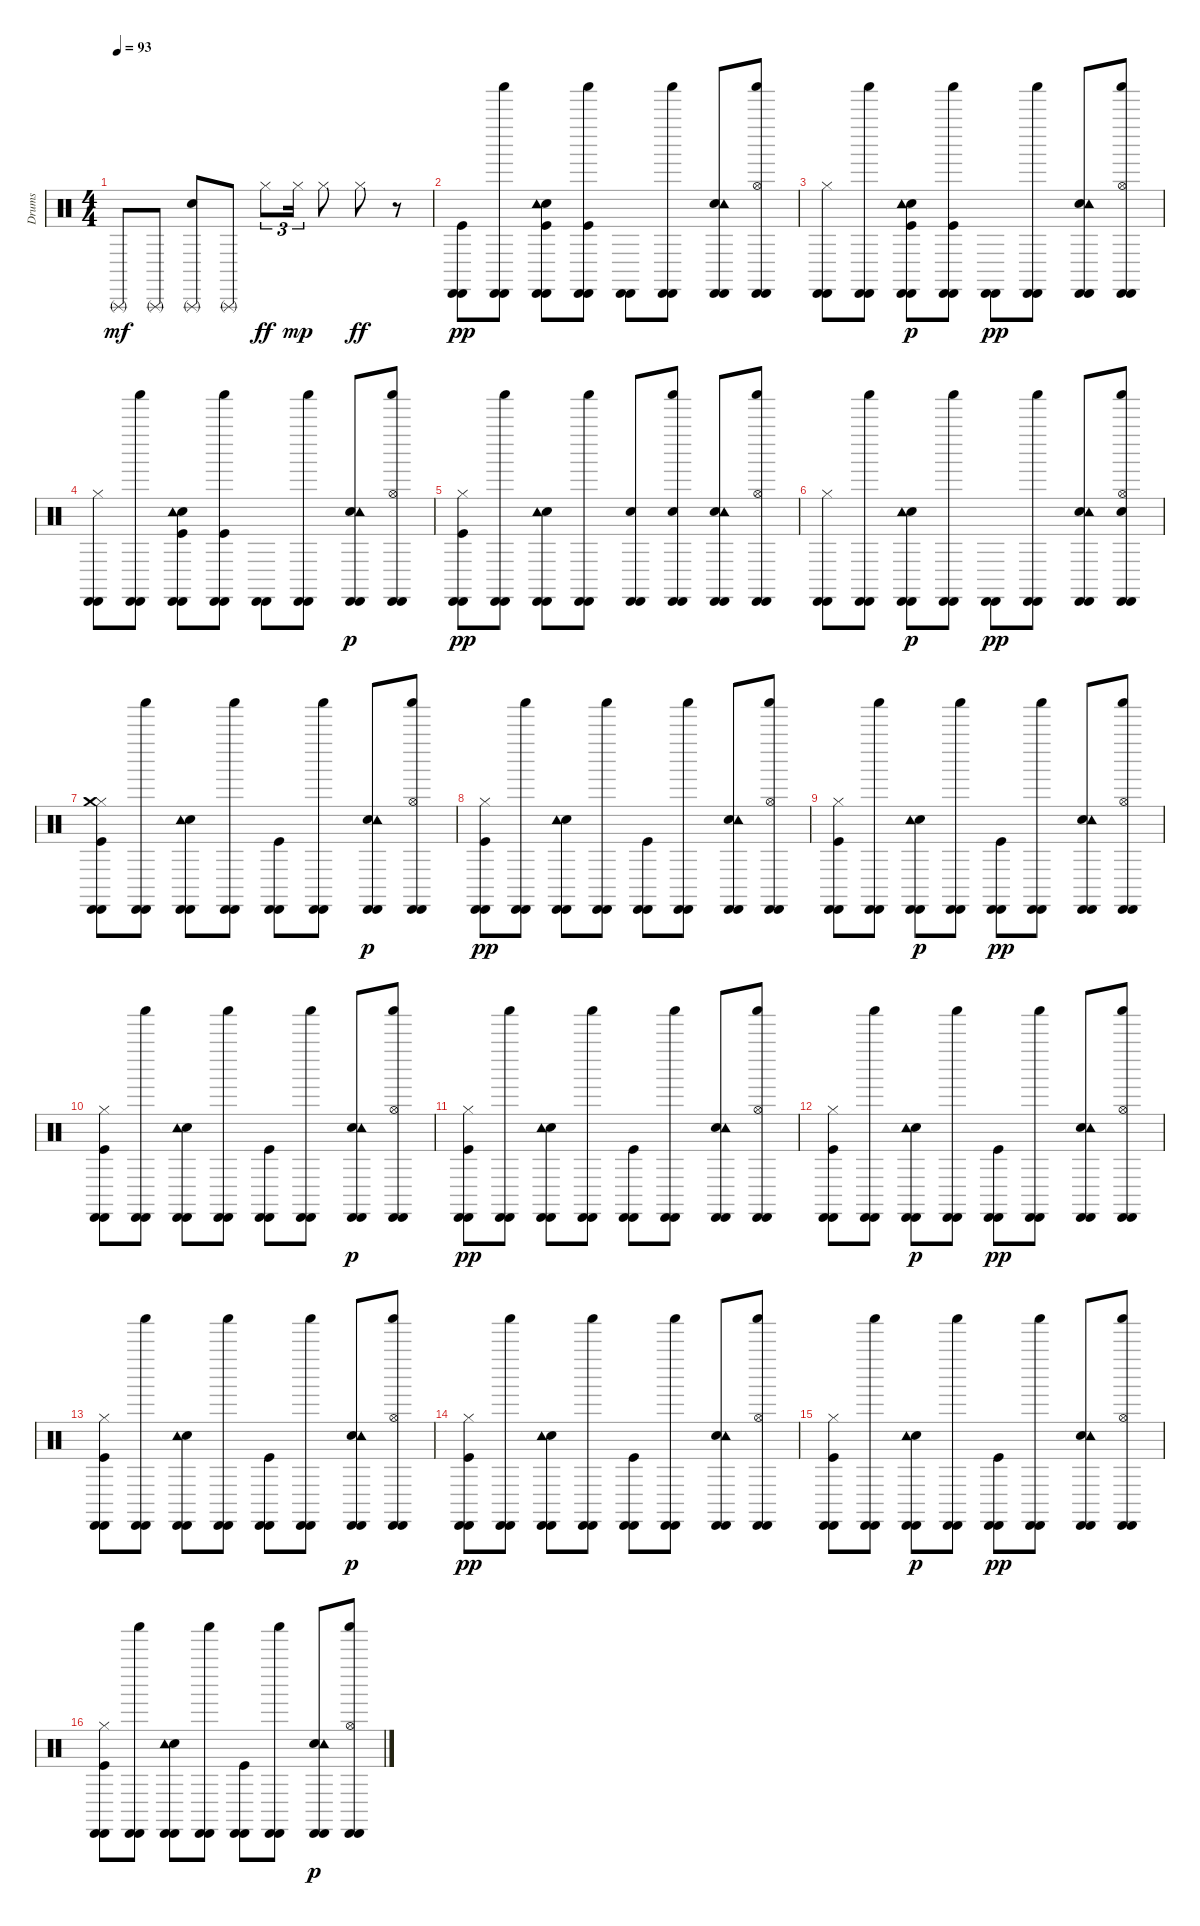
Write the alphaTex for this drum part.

\track ("Drums" "Drums") {instrument percussion}
\staff {score}
\articulation defaults
\ts (4 4)
\tempo 93
\clef neutral
\ks c "Triangle (rnute)".8{dy mf} "Triangle (rnute)".8
("Hand Clap (hit)" "Triangle (rnute)").8 "Triangle (rnute)".8 "Hi-Hat (closed)".8{tu (3 2) dy ff} "Hi-Hat (closed)".16{tu (3 2) dy mp} "Hi-Hat (closed)".8 "Hi-Hat (closed)".8{dy ff} r.8 |
("Kick (hit)" "Cabasa (hit)" "Cabasa (hit)").8{dy pp} ("Cabasa (hit)" "Shaker (hit)" "Cabasa (hit)").8 ("Kick (hit)" "Hand Clap (hit)" "Tambourine (hit)" "Cabasa (hit)" "Cabasa (hit)").8 ("Kick (hit)" "Cabasa (hit)" "Shaker (hit)" "Cabasa (hit)").8 ("Cabasa (hit)" "Cabasa (hit)").8 ("Cabasa (hit)" "Shaker (hit)" "Cabasa (hit)").8 ("Hand Clap (hit)" "Tambourine (hit)" "Cabasa (hit)" "Cabasa (hit)").8 ("Cabasa (hit)" "Shaker (hit)" "Hi-Hat (open)" "Cabasa (hit)").8 |
("Hi-Hat (closed)" "Cabasa (hit)" "Cabasa (hit)").8 ("Cabasa (hit)" "Shaker (hit)" "Cabasa (hit)").8 ("Kick (hit)" "Hand Clap (hit)" "Tambourine (hit)" "Cabasa (hit)" "Cabasa (hit)").8{dy p} ("Kick (hit)" "Cabasa (hit)" "Shaker (hit)" "Cabasa (hit)").8 ("Cabasa (hit)" "Cabasa (hit)").8{dy pp} ("Cabasa (hit)" "Shaker (hit)" "Cabasa (hit)").8 ("Hand Clap (hit)" "Tambourine (hit)" "Cabasa (hit)" "Cabasa (hit)").8 ("Cabasa (hit)" "Shaker (hit)" "Hi-Hat (open)" "Cabasa (hit)").8 |
("Hi-Hat (closed)" "Cabasa (hit)" "Cabasa (hit)").8 ("Cabasa (hit)" "Shaker (hit)" "Cabasa (hit)").8 ("Kick (hit)" "Hand Clap (hit)" "Tambourine (hit)" "Cabasa (hit)" "Cabasa (hit)").8 ("Kick (hit)" "Cabasa (hit)" "Shaker (hit)" "Cabasa (hit)").8 ("Cabasa (hit)" "Cabasa (hit)").8 ("Cabasa (hit)" "Shaker (hit)" "Cabasa (hit)").8 ("Hand Clap (hit)" "Tambourine (hit)" "Cabasa (hit)" "Cabasa (hit)").8{dy p} ("Cabasa (hit)" "Shaker (hit)" "Hi-Hat (open)" "Cabasa (hit)").8 |
("Kick (hit)" "Hi-Hat (closed)" "Cabasa (hit)" "Cabasa (hit)").8{dy pp} ("Cabasa (hit)" "Shaker (hit)" "Cabasa (hit)").8 ("Hand Clap (hit)" "Tambourine (hit)" "Cabasa (hit)" "Cabasa (hit)").8 ("Cabasa (hit)" "Shaker (hit)" "Cabasa (hit)").8 ("Electric Snare (hit)" "Cabasa (hit)" "Cabasa (hit)").8 ("Electric Snare (hit)" "Cabasa (hit)" "Shaker (hit)" "Cabasa (hit)").8 ("Hand Clap (hit)" "Tambourine (hit)" "Cabasa (hit)" "Cabasa (hit)").8 ("Cabasa (hit)" "Shaker (hit)" "Hi-Hat (open)" "Cabasa (hit)").8 |
("Hi-Hat (closed)" "Cabasa (hit)" "Cabasa (hit)").8 ("Cabasa (hit)" "Shaker (hit)" "Cabasa (hit)").8 ("Hand Clap (hit)" "Tambourine (hit)" "Cabasa (hit)" "Cabasa (hit)").8{dy p} ("Cabasa (hit)" "Shaker (hit)" "Cabasa (hit)").8 ("Cabasa (hit)" "Cabasa (hit)").8{dy pp} ("Cabasa (hit)" "Shaker (hit)" "Cabasa (hit)").8 ("Hand Clap (hit)" "Tambourine (hit)" "Cabasa (hit)" "Cabasa (hit)").8 ("Cabasa (hit)" "Shaker (hit)" "Electric Snare (hit)" "Hi-Hat (open)" "Cabasa (hit)").8 |
("Kick (hit)" "Hi-Hat (closed)" "Crash medium (hit)" "Cabasa (hit)" "Cabasa (hit)").8 ("Cabasa (hit)" "Shaker (hit)" "Cabasa (hit)").8 ("Hand Clap (hit)" "Tambourine (hit)" "Cabasa (hit)" "Cabasa (hit)").8 ("Cabasa (hit)" "Shaker (hit)" "Cabasa (hit)").8 ("Kick (hit)" "Cabasa (hit)" "Cabasa (hit)").8 ("Cabasa (hit)" "Shaker (hit)" "Cabasa (hit)").8 ("Hand Clap (hit)" "Tambourine (hit)" "Cabasa (hit)" "Cabasa (hit)").8{dy p} ("Cabasa (hit)" "Shaker (hit)" "Hi-Hat (open)" "Cabasa (hit)").8 |
("Kick (hit)" "Hi-Hat (closed)" "Cabasa (hit)" "Cabasa (hit)").8{dy pp} ("Cabasa (hit)" "Shaker (hit)" "Cabasa (hit)").8 ("Hand Clap (hit)" "Tambourine (hit)" "Cabasa (hit)" "Cabasa (hit)").8 ("Cabasa (hit)" "Shaker (hit)" "Cabasa (hit)").8 ("Kick (hit)" "Cabasa (hit)" "Cabasa (hit)").8 ("Cabasa (hit)" "Shaker (hit)" "Cabasa (hit)").8 ("Hand Clap (hit)" "Tambourine (hit)" "Cabasa (hit)" "Cabasa (hit)").8 ("Cabasa (hit)" "Shaker (hit)" "Hi-Hat (open)" "Cabasa (hit)").8 |
("Kick (hit)" "Hi-Hat (closed)" "Cabasa (hit)" "Cabasa (hit)").8 ("Cabasa (hit)" "Shaker (hit)" "Cabasa (hit)").8 ("Hand Clap (hit)" "Tambourine (hit)" "Cabasa (hit)" "Cabasa (hit)").8{dy p} ("Cabasa (hit)" "Shaker (hit)" "Cabasa (hit)").8 ("Kick (hit)" "Cabasa (hit)" "Cabasa (hit)").8{dy pp} ("Cabasa (hit)" "Shaker (hit)" "Cabasa (hit)").8 ("Hand Clap (hit)" "Tambourine (hit)" "Cabasa (hit)" "Cabasa (hit)").8 ("Cabasa (hit)" "Shaker (hit)" "Hi-Hat (open)" "Cabasa (hit)").8 |
("Kick (hit)" "Hi-Hat (closed)" "Cabasa (hit)" "Cabasa (hit)").8 ("Cabasa (hit)" "Shaker (hit)" "Cabasa (hit)").8 ("Hand Clap (hit)" "Tambourine (hit)" "Cabasa (hit)" "Cabasa (hit)").8 ("Cabasa (hit)" "Shaker (hit)" "Cabasa (hit)").8 ("Kick (hit)" "Cabasa (hit)" "Cabasa (hit)").8 ("Cabasa (hit)" "Shaker (hit)" "Cabasa (hit)").8 ("Hand Clap (hit)" "Tambourine (hit)" "Cabasa (hit)" "Cabasa (hit)").8{dy p} ("Cabasa (hit)" "Shaker (hit)" "Hi-Hat (open)" "Cabasa (hit)").8 |
("Kick (hit)" "Hi-Hat (closed)" "Cabasa (hit)" "Cabasa (hit)").8{dy pp} ("Cabasa (hit)" "Shaker (hit)" "Cabasa (hit)").8 ("Hand Clap (hit)" "Tambourine (hit)" "Cabasa (hit)" "Cabasa (hit)").8 ("Cabasa (hit)" "Shaker (hit)" "Cabasa (hit)").8 ("Kick (hit)" "Cabasa (hit)" "Cabasa (hit)").8 ("Cabasa (hit)" "Shaker (hit)" "Cabasa (hit)").8 ("Hand Clap (hit)" "Tambourine (hit)" "Cabasa (hit)" "Cabasa (hit)").8 ("Cabasa (hit)" "Shaker (hit)" "Hi-Hat (open)" "Cabasa (hit)").8 |
("Kick (hit)" "Hi-Hat (closed)" "Cabasa (hit)" "Cabasa (hit)").8 ("Cabasa (hit)" "Shaker (hit)" "Cabasa (hit)").8 ("Hand Clap (hit)" "Tambourine (hit)" "Cabasa (hit)" "Cabasa (hit)").8{dy p} ("Cabasa (hit)" "Shaker (hit)" "Cabasa (hit)").8 ("Kick (hit)" "Cabasa (hit)" "Cabasa (hit)").8{dy pp} ("Cabasa (hit)" "Shaker (hit)" "Cabasa (hit)").8 ("Hand Clap (hit)" "Tambourine (hit)" "Cabasa (hit)" "Cabasa (hit)").8 ("Cabasa (hit)" "Shaker (hit)" "Hi-Hat (open)" "Cabasa (hit)").8 |
("Kick (hit)" "Hi-Hat (closed)" "Cabasa (hit)" "Cabasa (hit)").8 ("Cabasa (hit)" "Shaker (hit)" "Cabasa (hit)").8 ("Hand Clap (hit)" "Tambourine (hit)" "Cabasa (hit)" "Cabasa (hit)").8 ("Cabasa (hit)" "Shaker (hit)" "Cabasa (hit)").8 ("Kick (hit)" "Cabasa (hit)" "Cabasa (hit)").8 ("Cabasa (hit)" "Shaker (hit)" "Cabasa (hit)").8 ("Hand Clap (hit)" "Tambourine (hit)" "Cabasa (hit)" "Cabasa (hit)").8{dy p} ("Cabasa (hit)" "Shaker (hit)" "Hi-Hat (open)" "Cabasa (hit)").8 |
("Kick (hit)" "Hi-Hat (closed)" "Cabasa (hit)" "Cabasa (hit)").8{dy pp} ("Cabasa (hit)" "Shaker (hit)" "Cabasa (hit)").8 ("Hand Clap (hit)" "Tambourine (hit)" "Cabasa (hit)" "Cabasa (hit)").8 ("Cabasa (hit)" "Shaker (hit)" "Cabasa (hit)").8 ("Kick (hit)" "Cabasa (hit)" "Cabasa (hit)").8 ("Cabasa (hit)" "Shaker (hit)" "Cabasa (hit)").8 ("Hand Clap (hit)" "Tambourine (hit)" "Cabasa (hit)" "Cabasa (hit)").8 ("Cabasa (hit)" "Shaker (hit)" "Hi-Hat (open)" "Cabasa (hit)").8 |
("Kick (hit)" "Hi-Hat (closed)" "Cabasa (hit)" "Cabasa (hit)").8 ("Cabasa (hit)" "Shaker (hit)" "Cabasa (hit)").8 ("Hand Clap (hit)" "Tambourine (hit)" "Cabasa (hit)" "Cabasa (hit)").8{dy p} ("Cabasa (hit)" "Shaker (hit)" "Cabasa (hit)").8 ("Kick (hit)" "Cabasa (hit)" "Cabasa (hit)").8{dy pp} ("Cabasa (hit)" "Shaker (hit)" "Cabasa (hit)").8 ("Hand Clap (hit)" "Tambourine (hit)" "Cabasa (hit)" "Cabasa (hit)").8 ("Cabasa (hit)" "Shaker (hit)" "Hi-Hat (open)" "Cabasa (hit)").8 |
("Kick (hit)" "Hi-Hat (closed)" "Cabasa (hit)" "Cabasa (hit)").8 ("Cabasa (hit)" "Shaker (hit)" "Cabasa (hit)").8 ("Hand Clap (hit)" "Tambourine (hit)" "Cabasa (hit)" "Cabasa (hit)").8 ("Cabasa (hit)" "Shaker (hit)" "Cabasa (hit)").8 ("Kick (hit)" "Cabasa (hit)" "Cabasa (hit)").8 ("Cabasa (hit)" "Shaker (hit)" "Cabasa (hit)").8 ("Hand Clap (hit)" "Tambourine (hit)" "Cabasa (hit)" "Cabasa (hit)").8{dy p} ("Cabasa (hit)" "Shaker (hit)" "Hi-Hat (open)" "Cabasa (hit)").8
